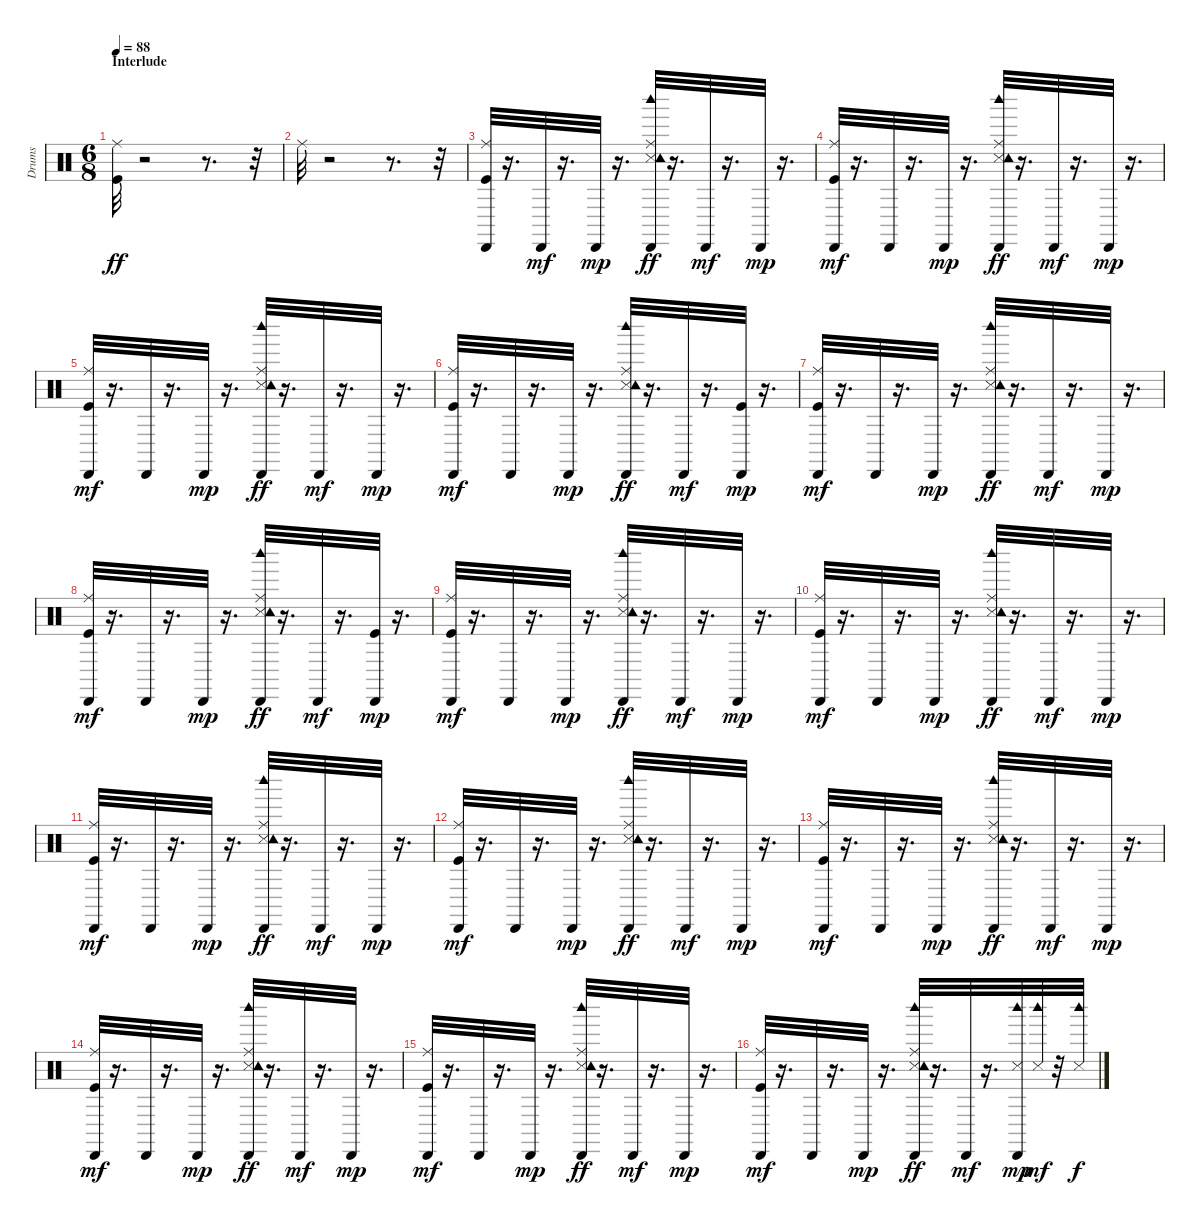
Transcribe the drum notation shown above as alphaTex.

\track ("Drums               " "Drums     ") {instrument percussion}
\staff {score}
\articulation defaults
\ts (6 8)
\section ("" "Interlude")
\tempo 88
\clef neutral
\ks c
("Kick (hit)" "Ride (middle)").32{dy ff} r.2 r.8{d} r.32 |
"Ride (middle)".32 r.2 r.8{d} r.32 |
("Kick (hit)" "Ride (middle)" "Cabasa (hit)").32 r.16{d} "Cabasa (hit)".32{dy mf} r.16{d} "Cabasa (hit)".32{dy mp} r.16{d} ("Snare (side stick) 3" "Ride (middle)" "Tambourine (hit)" "Cabasa (hit)" "Woodblock high (hit)").32{dy ff} r.16{d} "Cabasa (hit)".32{dy mf} r.16{d} "Cabasa (hit)".32{dy mp} r.16{d} |
("Kick (hit)" "Ride (middle)" "Cabasa (hit)").32{dy mf} r.16{d} "Cabasa (hit)".32 r.16{d} "Cabasa (hit)".32{dy mp} r.16{d} ("Snare (side stick) 3" "Ride (middle)" "Tambourine (hit)" "Cabasa (hit)" "Woodblock high (hit)").32{dy ff} r.16{d} "Cabasa (hit)".32{dy mf} r.16{d} "Cabasa (hit)".32{dy mp} r.16{d} |
("Kick (hit)" "Ride (middle)" "Cabasa (hit)").32{dy mf} r.16{d} "Cabasa (hit)".32 r.16{d} "Cabasa (hit)".32{dy mp} r.16{d} ("Snare (side stick) 3" "Ride (middle)" "Tambourine (hit)" "Cabasa (hit)" "Woodblock high (hit)").32{dy ff} r.16{d} "Cabasa (hit)".32{dy mf} r.16{d} "Cabasa (hit)".32{dy mp} r.16{d} |
("Kick (hit)" "Ride (middle)" "Cabasa (hit)").32{dy mf} r.16{d} "Cabasa (hit)".32 r.16{d} "Cabasa (hit)".32{dy mp} r.16{d} ("Snare (side stick) 3" "Ride (middle)" "Tambourine (hit)" "Cabasa (hit)" "Woodblock high (hit)").32{dy ff} r.16{d} "Cabasa (hit)".32{dy mf} r.16{d} ("Kick (hit)" "Cabasa (hit)").32{dy mp} r.16{d} |
("Kick (hit)" "Ride (middle)" "Cabasa (hit)").32{dy mf} r.16{d} "Cabasa (hit)".32 r.16{d} "Cabasa (hit)".32{dy mp} r.16{d} ("Snare (side stick) 3" "Ride (middle)" "Tambourine (hit)" "Cabasa (hit)" "Woodblock high (hit)").32{dy ff} r.16{d} "Cabasa (hit)".32{dy mf} r.16{d} "Cabasa (hit)".32{dy mp} r.16{d} |
("Kick (hit)" "Ride (middle)" "Cabasa (hit)").32{dy mf} r.16{d} "Cabasa (hit)".32 r.16{d} "Cabasa (hit)".32{dy mp} r.16{d} ("Snare (side stick) 3" "Ride (middle)" "Tambourine (hit)" "Cabasa (hit)" "Woodblock high (hit)").32{dy ff} r.16{d} "Cabasa (hit)".32{dy mf} r.16{d} ("Kick (hit)" "Cabasa (hit)").32{dy mp} r.16{d} |
("Kick (hit)" "Ride (middle)" "Cabasa (hit)").32{dy mf} r.16{d} "Cabasa (hit)".32 r.16{d} "Cabasa (hit)".32{dy mp} r.16{d} ("Snare (side stick) 3" "Ride (middle)" "Tambourine (hit)" "Cabasa (hit)" "Woodblock high (hit)").32{dy ff} r.16{d} "Cabasa (hit)".32{dy mf} r.16{d} "Cabasa (hit)".32{dy mp} r.16{d} |
("Kick (hit)" "Ride (middle)" "Cabasa (hit)").32{dy mf} r.16{d} "Cabasa (hit)".32 r.16{d} "Cabasa (hit)".32{dy mp} r.16{d} ("Snare (side stick) 3" "Ride (middle)" "Tambourine (hit)" "Cabasa (hit)" "Woodblock high (hit)").32{dy ff} r.16{d} "Cabasa (hit)".32{dy mf} r.16{d} "Cabasa (hit)".32{dy mp} r.16{d} |
("Kick (hit)" "Ride (middle)" "Cabasa (hit)").32{dy mf} r.16{d} "Cabasa (hit)".32 r.16{d} "Cabasa (hit)".32{dy mp} r.16{d} ("Snare (side stick) 3" "Ride (middle)" "Tambourine (hit)" "Cabasa (hit)" "Woodblock high (hit)").32{dy ff} r.16{d} "Cabasa (hit)".32{dy mf} r.16{d} "Cabasa (hit)".32{dy mp} r.16{d} |
("Kick (hit)" "Ride (middle)" "Cabasa (hit)").32{dy mf} r.16{d} "Cabasa (hit)".32 r.16{d} "Cabasa (hit)".32{dy mp} r.16{d} ("Snare (side stick) 3" "Ride (middle)" "Tambourine (hit)" "Cabasa (hit)" "Woodblock high (hit)").32{dy ff} r.16{d} "Cabasa (hit)".32{dy mf} r.16{d} "Cabasa (hit)".32{dy mp} r.16{d} |
("Kick (hit)" "Ride (middle)" "Cabasa (hit)").32{dy mf} r.16{d} "Cabasa (hit)".32 r.16{d} "Cabasa (hit)".32{dy mp} r.16{d} ("Snare (side stick) 3" "Ride (middle)" "Tambourine (hit)" "Cabasa (hit)" "Woodblock high (hit)").32{dy ff} r.16{d} "Cabasa (hit)".32{dy mf} r.16{d} "Cabasa (hit)".32{dy mp} r.16{d} |
("Kick (hit)" "Ride (middle)" "Cabasa (hit)").32{dy mf} r.16{d} "Cabasa (hit)".32 r.16{d} "Cabasa (hit)".32{dy mp} r.16{d} ("Snare (side stick) 3" "Ride (middle)" "Tambourine (hit)" "Cabasa (hit)" "Woodblock high (hit)").32{dy ff} r.16{d} "Cabasa (hit)".32{dy mf} r.16{d} "Cabasa (hit)".32{dy mp} r.16{d} |
("Kick (hit)" "Ride (middle)" "Cabasa (hit)").32{dy mf} r.16{d} "Cabasa (hit)".32 r.16{d} "Cabasa (hit)".32{dy mp} r.16{d} ("Snare (side stick) 3" "Ride (middle)" "Tambourine (hit)" "Cabasa (hit)" "Woodblock high (hit)").32{dy ff} r.16{d} "Cabasa (hit)".32{dy mf} r.16{d} "Cabasa (hit)".32{dy mp} r.16{d} |
("Kick (hit)" "Ride (middle)" "Cabasa (hit)").32{dy mf} r.16{d} "Cabasa (hit)".32 r.16{d} "Cabasa (hit)".32{dy mp} r.16{d} ("Snare (side stick) 3" "Ride (middle)" "Tambourine (hit)" "Cabasa (hit)" "Woodblock high (hit)").32{dy ff} r.16{d} "Cabasa (hit)".32{dy mf} r.16{d} ("Snare (side stick) 3" "Cabasa (hit)" "Woodblock high (hit)").32{dy mp} ("Snare (side stick) 3" "Woodblock high (hit)").32{dy mf} r.32 ("Snare (side stick) 3" "Woodblock high (hit)").32{dy f}
